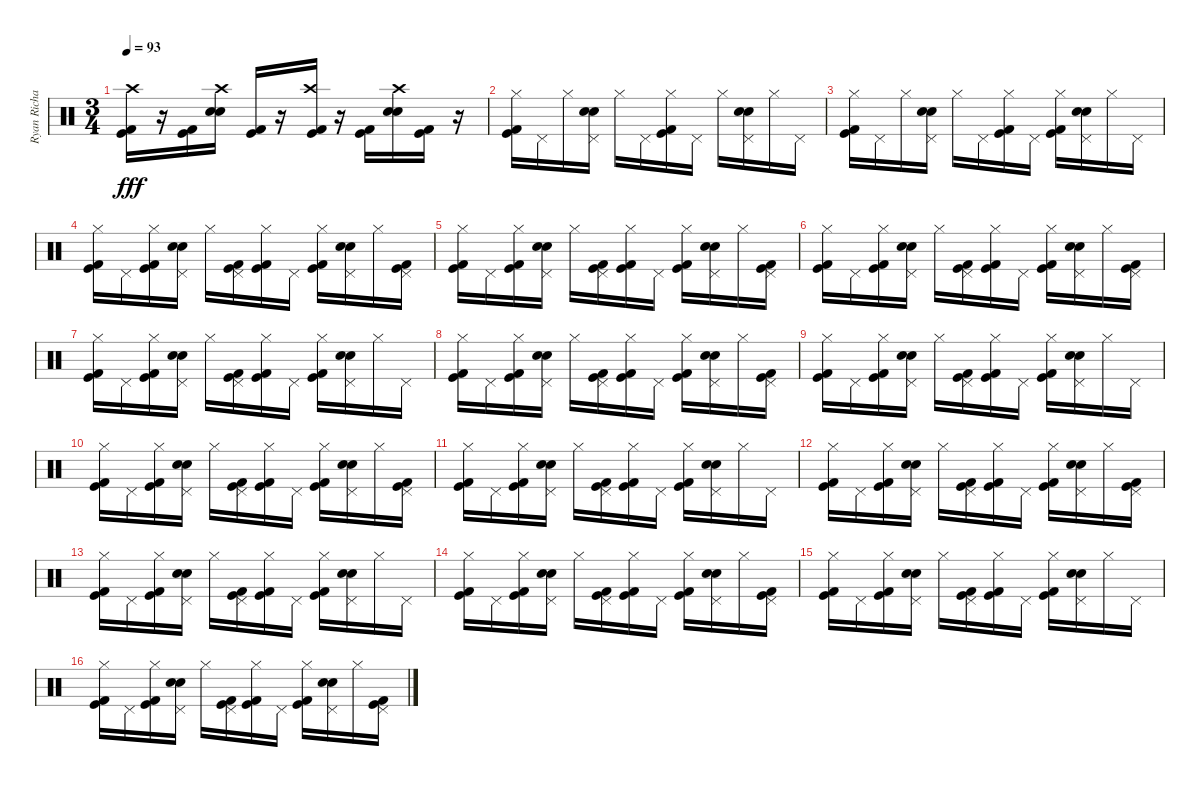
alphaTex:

\track ("Ryan Richards" "Ryan Richa") {instrument percussion}
\staff {score}
\articulation defaults
\ts (3 4)
\tempo 93
\clef neutral
\ks c
("Kick (hit)" "Crash high (hit)" "Kick (hit) 2").16{dy fff volume 16} r.16 ("Kick (hit)" "Kick (hit) 2").16 ("Snare (hit) 2" "Crash high (hit)" "Electric Snare (hit)").16 ("Kick (hit)" "Kick (hit) 2").16 r.16 ("Kick (hit)" "Crash high (hit)" "Kick (hit) 2").16 r.16 ("Kick (hit)" "Kick (hit) 2").16 ("Snare (hit) 2" "Crash high (hit)" "Electric Snare (hit)").16 ("Kick (hit)" "Kick (hit) 2").16 r.16 |
("Kick (hit)" "Hi-Hat (closed)" "Kick (hit) 2").16 "Pedal Hi-Hat (hit)".16 "Hi-Hat (closed)".16 ("Snare (hit) 2" "Pedal Hi-Hat (hit)" "Electric Snare (hit)").16 "Hi-Hat (closed)".16 "Pedal Hi-Hat (hit)".16 ("Kick (hit)" "Hi-Hat (closed)" "Kick (hit) 2").16 "Pedal Hi-Hat (hit)".16 "Hi-Hat (closed)".16 ("Snare (hit) 2" "Pedal Hi-Hat (hit)" "Electric Snare (hit)").16 "Hi-Hat (closed)".16 "Pedal Hi-Hat (hit)".16 |
("Kick (hit)" "Hi-Hat (closed)" "Kick (hit) 2").16 "Pedal Hi-Hat (hit)".16 "Hi-Hat (closed)".16 ("Snare (hit) 2" "Pedal Hi-Hat (hit)" "Electric Snare (hit)").16 "Hi-Hat (closed)".16 "Pedal Hi-Hat (hit)".16 ("Kick (hit)" "Hi-Hat (closed)" "Kick (hit) 2").16 "Pedal Hi-Hat (hit)".16 ("Kick (hit)" "Hi-Hat (closed)" "Kick (hit) 2").16 ("Snare (hit) 2" "Pedal Hi-Hat (hit)" "Electric Snare (hit)").16 "Hi-Hat (closed)".16 "Pedal Hi-Hat (hit)".16 |
("Kick (hit)" "Hi-Hat (closed)" "Kick (hit) 2").16 "Pedal Hi-Hat (hit)".16 ("Kick (hit)" "Hi-Hat (closed)" "Kick (hit) 2").16 ("Snare (hit) 2" "Pedal Hi-Hat (hit)" "Electric Snare (hit)").16 "Hi-Hat (closed)".16 ("Kick (hit)" "Pedal Hi-Hat (hit)" "Kick (hit) 2").16 ("Kick (hit)" "Hi-Hat (closed)" "Kick (hit) 2").16 "Pedal Hi-Hat (hit)".16 ("Kick (hit)" "Hi-Hat (closed)" "Kick (hit) 2").16 ("Snare (hit) 2" "Pedal Hi-Hat (hit)" "Electric Snare (hit)").16 "Hi-Hat (closed)".16 ("Kick (hit)" "Pedal Hi-Hat (hit)" "Kick (hit) 2").16 |
("Kick (hit)" "Hi-Hat (closed)" "Kick (hit) 2").16 "Pedal Hi-Hat (hit)".16 ("Kick (hit)" "Hi-Hat (closed)" "Kick (hit) 2").16 ("Snare (hit) 2" "Pedal Hi-Hat (hit)" "Electric Snare (hit)").16 "Hi-Hat (closed)".16 ("Kick (hit)" "Pedal Hi-Hat (hit)" "Kick (hit) 2").16 ("Kick (hit)" "Hi-Hat (closed)" "Kick (hit) 2").16 "Pedal Hi-Hat (hit)".16 ("Kick (hit)" "Hi-Hat (closed)" "Kick (hit) 2").16 ("Snare (hit) 2" "Pedal Hi-Hat (hit)" "Electric Snare (hit)").16 "Hi-Hat (closed)".16 ("Kick (hit)" "Pedal Hi-Hat (hit)" "Kick (hit) 2").16 |
("Kick (hit)" "Hi-Hat (closed)" "Kick (hit) 2").16 "Pedal Hi-Hat (hit)".16 ("Kick (hit)" "Hi-Hat (closed)" "Kick (hit) 2").16 ("Snare (hit) 2" "Pedal Hi-Hat (hit)" "Electric Snare (hit)").16 "Hi-Hat (closed)".16 ("Kick (hit)" "Pedal Hi-Hat (hit)" "Kick (hit) 2").16 ("Kick (hit)" "Hi-Hat (closed)" "Kick (hit) 2").16 "Pedal Hi-Hat (hit)".16 ("Kick (hit)" "Hi-Hat (closed)" "Kick (hit) 2").16 ("Snare (hit) 2" "Pedal Hi-Hat (hit)" "Electric Snare (hit)").16 "Hi-Hat (closed)".16 ("Kick (hit)" "Pedal Hi-Hat (hit)" "Kick (hit) 2").16 |
("Kick (hit)" "Hi-Hat (closed)" "Kick (hit) 2").16 "Pedal Hi-Hat (hit)".16 ("Kick (hit)" "Hi-Hat (closed)" "Kick (hit) 2").16 ("Snare (hit) 2" "Pedal Hi-Hat (hit)" "Electric Snare (hit)").16 "Hi-Hat (closed)".16 ("Kick (hit)" "Pedal Hi-Hat (hit)" "Kick (hit) 2").16 ("Kick (hit)" "Hi-Hat (closed)" "Kick (hit) 2").16 "Pedal Hi-Hat (hit)".16 ("Kick (hit)" "Hi-Hat (closed)" "Kick (hit) 2").16 ("Snare (hit) 2" "Pedal Hi-Hat (hit)" "Electric Snare (hit)").16 "Hi-Hat (closed)".16 "Pedal Hi-Hat (hit)".16 |
("Kick (hit)" "Hi-Hat (closed)" "Kick (hit) 2").16 "Pedal Hi-Hat (hit)".16 ("Kick (hit)" "Hi-Hat (closed)" "Kick (hit) 2").16 ("Snare (hit) 2" "Pedal Hi-Hat (hit)" "Electric Snare (hit)").16 "Hi-Hat (closed)".16 ("Kick (hit)" "Pedal Hi-Hat (hit)" "Kick (hit) 2").16 ("Kick (hit)" "Hi-Hat (closed)" "Kick (hit) 2").16 "Pedal Hi-Hat (hit)".16 ("Kick (hit)" "Hi-Hat (closed)" "Kick (hit) 2").16 ("Snare (hit) 2" "Pedal Hi-Hat (hit)" "Electric Snare (hit)").16 "Hi-Hat (closed)".16 ("Kick (hit)" "Pedal Hi-Hat (hit)" "Kick (hit) 2").16 |
("Kick (hit)" "Hi-Hat (closed)" "Kick (hit) 2").16 "Pedal Hi-Hat (hit)".16 ("Kick (hit)" "Hi-Hat (closed)" "Kick (hit) 2").16 ("Snare (hit) 2" "Pedal Hi-Hat (hit)" "Electric Snare (hit)").16 "Hi-Hat (closed)".16 ("Kick (hit)" "Pedal Hi-Hat (hit)" "Kick (hit) 2").16 ("Kick (hit)" "Hi-Hat (closed)" "Kick (hit) 2").16 "Pedal Hi-Hat (hit)".16 ("Kick (hit)" "Hi-Hat (closed)" "Kick (hit) 2").16 ("Snare (hit) 2" "Pedal Hi-Hat (hit)" "Electric Snare (hit)").16 "Hi-Hat (closed)".16 "Pedal Hi-Hat (hit)".16 |
("Kick (hit)" "Hi-Hat (closed)" "Kick (hit) 2").16 "Pedal Hi-Hat (hit)".16 ("Kick (hit)" "Hi-Hat (closed)" "Kick (hit) 2").16 ("Snare (hit) 2" "Pedal Hi-Hat (hit)" "Electric Snare (hit)").16 "Hi-Hat (closed)".16 ("Kick (hit)" "Pedal Hi-Hat (hit)" "Kick (hit) 2").16 ("Kick (hit)" "Hi-Hat (closed)" "Kick (hit) 2").16 "Pedal Hi-Hat (hit)".16 ("Kick (hit)" "Hi-Hat (closed)" "Kick (hit) 2").16 ("Snare (hit) 2" "Pedal Hi-Hat (hit)" "Electric Snare (hit)").16 "Hi-Hat (closed)".16 ("Kick (hit)" "Pedal Hi-Hat (hit)" "Kick (hit) 2").16 |
("Kick (hit)" "Hi-Hat (closed)" "Kick (hit) 2").16 "Pedal Hi-Hat (hit)".16 ("Kick (hit)" "Hi-Hat (closed)" "Kick (hit) 2").16 ("Snare (hit) 2" "Pedal Hi-Hat (hit)" "Electric Snare (hit)").16 "Hi-Hat (closed)".16 ("Kick (hit)" "Pedal Hi-Hat (hit)" "Kick (hit) 2").16 ("Kick (hit)" "Hi-Hat (closed)" "Kick (hit) 2").16 "Pedal Hi-Hat (hit)".16 ("Kick (hit)" "Hi-Hat (closed)" "Kick (hit) 2").16 ("Snare (hit) 2" "Pedal Hi-Hat (hit)" "Electric Snare (hit)").16 "Hi-Hat (closed)".16 "Pedal Hi-Hat (hit)".16 |
("Kick (hit)" "Hi-Hat (closed)" "Kick (hit) 2").16 "Pedal Hi-Hat (hit)".16 ("Kick (hit)" "Hi-Hat (closed)" "Kick (hit) 2").16 ("Snare (hit) 2" "Pedal Hi-Hat (hit)" "Electric Snare (hit)").16 "Hi-Hat (closed)".16 ("Kick (hit)" "Pedal Hi-Hat (hit)" "Kick (hit) 2").16 ("Kick (hit)" "Hi-Hat (closed)" "Kick (hit) 2").16 "Pedal Hi-Hat (hit)".16 ("Kick (hit)" "Hi-Hat (closed)" "Kick (hit) 2").16 ("Snare (hit) 2" "Pedal Hi-Hat (hit)" "Electric Snare (hit)").16 "Hi-Hat (closed)".16 ("Kick (hit)" "Pedal Hi-Hat (hit)" "Kick (hit) 2").16 |
("Kick (hit)" "Hi-Hat (closed)" "Kick (hit) 2").16 "Pedal Hi-Hat (hit)".16 ("Kick (hit)" "Hi-Hat (closed)" "Kick (hit) 2").16 ("Snare (hit) 2" "Pedal Hi-Hat (hit)" "Electric Snare (hit)").16 "Hi-Hat (closed)".16 ("Kick (hit)" "Pedal Hi-Hat (hit)" "Kick (hit) 2").16 ("Kick (hit)" "Hi-Hat (closed)" "Kick (hit) 2").16 "Pedal Hi-Hat (hit)".16 ("Kick (hit)" "Hi-Hat (closed)" "Kick (hit) 2").16 ("Snare (hit) 2" "Pedal Hi-Hat (hit)" "Electric Snare (hit)").16 "Hi-Hat (closed)".16 "Pedal Hi-Hat (hit)".16 |
("Kick (hit)" "Hi-Hat (closed)" "Kick (hit) 2").16 "Pedal Hi-Hat (hit)".16 ("Kick (hit)" "Hi-Hat (closed)" "Kick (hit) 2").16 ("Snare (hit) 2" "Pedal Hi-Hat (hit)" "Electric Snare (hit)").16 "Hi-Hat (closed)".16 ("Kick (hit)" "Pedal Hi-Hat (hit)" "Kick (hit) 2").16 ("Kick (hit)" "Hi-Hat (closed)" "Kick (hit) 2").16 "Pedal Hi-Hat (hit)".16 ("Kick (hit)" "Hi-Hat (closed)" "Kick (hit) 2").16 ("Snare (hit) 2" "Pedal Hi-Hat (hit)" "Electric Snare (hit)").16 "Hi-Hat (closed)".16 ("Kick (hit)" "Pedal Hi-Hat (hit)" "Kick (hit) 2").16 |
("Kick (hit)" "Hi-Hat (closed)" "Kick (hit) 2").16 "Pedal Hi-Hat (hit)".16 ("Kick (hit)" "Hi-Hat (closed)" "Kick (hit) 2").16 ("Snare (hit) 2" "Pedal Hi-Hat (hit)" "Electric Snare (hit)").16 "Hi-Hat (closed)".16 ("Kick (hit)" "Pedal Hi-Hat (hit)" "Kick (hit) 2").16 ("Kick (hit)" "Hi-Hat (closed)" "Kick (hit) 2").16 "Pedal Hi-Hat (hit)".16 ("Kick (hit)" "Hi-Hat (closed)" "Kick (hit) 2").16 ("Snare (hit) 2" "Pedal Hi-Hat (hit)" "Electric Snare (hit)").16 "Hi-Hat (closed)".16 "Pedal Hi-Hat (hit)".16 |
("Kick (hit)" "Hi-Hat (closed)" "Kick (hit) 2").16 "Pedal Hi-Hat (hit)".16 ("Kick (hit)" "Hi-Hat (closed)" "Kick (hit) 2").16 ("Snare (hit) 2" "Pedal Hi-Hat (hit)" "Electric Snare (hit)").16 "Hi-Hat (closed)".16 ("Kick (hit)" "Pedal Hi-Hat (hit)" "Kick (hit) 2").16 ("Kick (hit)" "Hi-Hat (closed)" "Kick (hit) 2").16 "Pedal Hi-Hat (hit)".16 ("Kick (hit)" "Hi-Hat (closed)" "Kick (hit) 2").16 ("Snare (hit) 2" "Pedal Hi-Hat (hit)" "Electric Snare (hit)").16 "Hi-Hat (closed)".16 ("Kick (hit)" "Pedal Hi-Hat (hit)" "Kick (hit) 2").16
